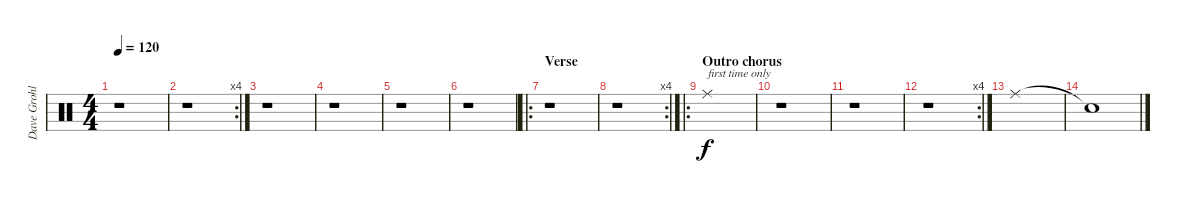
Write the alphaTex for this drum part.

\track ("Dave Grohl" "Dave Grohl") {instrument percussion}
\staff {score}
\articulation defaults
\ts (4 4)
\tempo 120
\clef neutral
\ks c
r.1{dy f} |
\rc 4
r.1 |
r.1 |
r.1 |
r.1 |
r.1 |
\ro
\section ("" "Verse")
r.1 |
\rc 4
r.1{volume 16} |
\ro
\section ("" "Outro chorus")
"Ride (middle)".1{txt "first time only"} |
r.1{volume 0} |
r.1 |
\rc 4
r.1 |
"Ride (middle)".1{volume 16} |
"Snare (hit)"{t}.1
